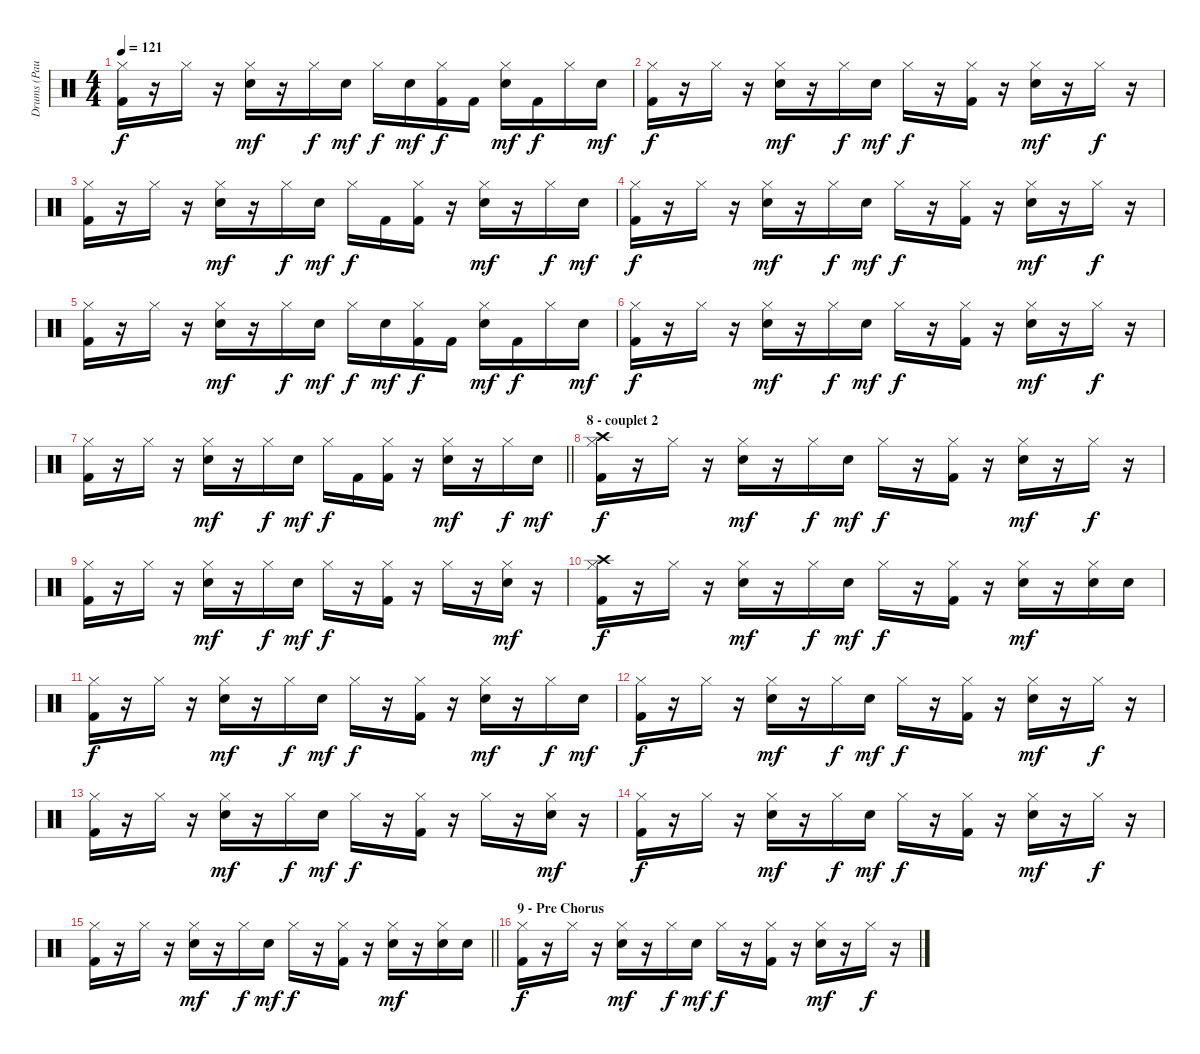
\track ("Drums (Paul)" "Drums (Pau") {instrument percussion}
\staff {score}
\articulation defaults
\ts (4 4)
\tempo 121
\clef neutral
\ks c
("Hi-Hat (closed)" "Kick (hit) 2").16{dy f} r.16 "Hi-Hat (closed)".16 r.16 ("Hi-Hat (closed)" "Snare (hit) 2").16{dy mf} r.16 "Hi-Hat (closed)".16{dy f} "Snare (hit) 2".16{dy mf} "Hi-Hat (closed)".16{dy f} "Snare (hit) 2".16{dy mf} ("Hi-Hat (closed)" "Kick (hit) 2").16{dy f} "Kick (hit) 2".16 ("Hi-Hat (closed)" "Snare (hit) 2").16{dy mf} "Kick (hit) 2".16{dy f} "Hi-Hat (closed)".16 "Snare (hit) 2".16{dy mf} |
("Hi-Hat (closed)" "Kick (hit) 2").16{dy f} r.16 "Hi-Hat (closed)".16 r.16 ("Hi-Hat (closed)" "Snare (hit) 2").16{dy mf} r.16 "Hi-Hat (closed)".16{dy f} "Snare (hit) 2".16{dy mf} "Hi-Hat (closed)".16{dy f} r.16 ("Hi-Hat (closed)" "Kick (hit) 2").16 r.16 ("Hi-Hat (closed)" "Snare (hit) 2").16{dy mf} r.16 "Hi-Hat (closed)".16{dy f} r.16 |
("Hi-Hat (closed)" "Kick (hit) 2").16 r.16 "Hi-Hat (closed)".16 r.16 ("Hi-Hat (closed)" "Snare (hit) 2").16{dy mf} r.16 "Hi-Hat (closed)".16{dy f} "Snare (hit) 2".16{dy mf} "Hi-Hat (closed)".16{dy f} "Kick (hit) 2".16 ("Hi-Hat (closed)" "Kick (hit) 2").16 r.16 ("Hi-Hat (closed)" "Snare (hit) 2").16{dy mf} r.16 "Hi-Hat (closed)".16{dy f} "Snare (hit) 2".16{dy mf} |
("Hi-Hat (closed)" "Kick (hit) 2").16{dy f} r.16 "Hi-Hat (closed)".16 r.16 ("Hi-Hat (closed)" "Snare (hit) 2").16{dy mf} r.16 "Hi-Hat (closed)".16{dy f} "Snare (hit) 2".16{dy mf} "Hi-Hat (closed)".16{dy f} r.16 ("Hi-Hat (closed)" "Kick (hit) 2").16 r.16 ("Hi-Hat (closed)" "Snare (hit) 2").16{dy mf} r.16 "Hi-Hat (closed)".16{dy f} r.16 |
("Hi-Hat (closed)" "Kick (hit) 2").16 r.16 "Hi-Hat (closed)".16 r.16 ("Hi-Hat (closed)" "Snare (hit) 2").16{dy mf} r.16 "Hi-Hat (closed)".16{dy f} "Snare (hit) 2".16{dy mf} "Hi-Hat (closed)".16{dy f} "Snare (hit) 2".16{dy mf} ("Hi-Hat (closed)" "Kick (hit) 2").16{dy f} "Kick (hit) 2".16 ("Hi-Hat (closed)" "Snare (hit) 2").16{dy mf} "Kick (hit) 2".16{dy f} "Hi-Hat (closed)".16 "Snare (hit) 2".16{dy mf} |
("Hi-Hat (closed)" "Kick (hit) 2").16{dy f} r.16 "Hi-Hat (closed)".16 r.16 ("Hi-Hat (closed)" "Snare (hit) 2").16{dy mf} r.16 "Hi-Hat (closed)".16{dy f} "Snare (hit) 2".16{dy mf} "Hi-Hat (closed)".16{dy f} r.16 ("Hi-Hat (closed)" "Kick (hit) 2").16 r.16 ("Hi-Hat (closed)" "Snare (hit) 2").16{dy mf} r.16 "Hi-Hat (closed)".16{dy f} r.16 |
\barLineRight lightlight
("Hi-Hat (closed)" "Kick (hit) 2").16 r.16 "Hi-Hat (closed)".16 r.16 ("Hi-Hat (closed)" "Snare (hit) 2").16{dy mf} r.16 "Hi-Hat (closed)".16{dy f} "Snare (hit) 2".16{dy mf} "Hi-Hat (closed)".16{dy f} "Kick (hit) 2".16 ("Hi-Hat (closed)" "Kick (hit) 2").16 r.16 ("Hi-Hat (closed)" "Snare (hit) 2").16{dy mf} r.16 "Hi-Hat (closed)".16{dy f} "Snare (hit) 2".16{dy mf} |
\section ("" "8 - couplet 2")
("Hi-Hat (closed)" "Crash high (hit)" "Kick (hit) 2").16{dy f} r.16 "Hi-Hat (closed)".16 r.16 ("Hi-Hat (closed)" "Snare (hit) 2").16{dy mf} r.16 "Hi-Hat (closed)".16{dy f} "Snare (hit) 2".16{dy mf} "Hi-Hat (closed)".16{dy f} r.16 ("Hi-Hat (closed)" "Kick (hit) 2").16 r.16 ("Hi-Hat (closed)" "Snare (hit) 2").16{dy mf} r.16 "Hi-Hat (closed)".16{dy f} r.16 |
("Hi-Hat (closed)" "Kick (hit) 2").16 r.16 "Hi-Hat (closed)".16 r.16 ("Hi-Hat (closed)" "Snare (hit) 2").16{dy mf} r.16 "Hi-Hat (closed)".16{dy f} "Snare (hit) 2".16{dy mf} "Hi-Hat (closed)".16{dy f} r.16 ("Hi-Hat (closed)" "Kick (hit) 2").16 r.16 "Hi-Hat (closed)".16 r.16 ("Hi-Hat (closed)" "Snare (hit) 2").16{dy mf} r.16 |
("Hi-Hat (closed)" "Crash high (hit)" "Kick (hit) 2").16{dy f} r.16 "Hi-Hat (closed)".16 r.16 ("Hi-Hat (closed)" "Snare (hit) 2").16{dy mf} r.16 "Hi-Hat (closed)".16{dy f} "Snare (hit) 2".16{dy mf} "Hi-Hat (closed)".16{dy f} r.16 ("Hi-Hat (closed)" "Kick (hit) 2").16 r.16 ("Hi-Hat (closed)" "Snare (hit) 2").16{dy mf} r.16 ("Hi-Hat (closed)" "Snare (hit) 2").16 "Snare (hit) 2".16 |
("Hi-Hat (closed)" "Kick (hit) 2").16{dy f} r.16 "Hi-Hat (closed)".16 r.16 ("Hi-Hat (closed)" "Snare (hit) 2").16{dy mf} r.16 "Hi-Hat (closed)".16{dy f} "Snare (hit) 2".16{dy mf} "Hi-Hat (closed)".16{dy f} r.16 ("Hi-Hat (closed)" "Kick (hit) 2").16 r.16 ("Hi-Hat (closed)" "Snare (hit) 2").16{dy mf} r.16 "Hi-Hat (closed)".16{dy f} "Snare (hit) 2".16{dy mf} |
("Hi-Hat (closed)" "Kick (hit) 2").16{dy f} r.16 "Hi-Hat (closed)".16 r.16 ("Hi-Hat (closed)" "Snare (hit) 2").16{dy mf} r.16 "Hi-Hat (closed)".16{dy f} "Snare (hit) 2".16{dy mf} "Hi-Hat (closed)".16{dy f} r.16 ("Hi-Hat (closed)" "Kick (hit) 2").16 r.16 ("Hi-Hat (closed)" "Snare (hit) 2").16{dy mf} r.16 "Hi-Hat (closed)".16{dy f} r.16 |
("Hi-Hat (closed)" "Kick (hit) 2").16 r.16 "Hi-Hat (closed)".16 r.16 ("Hi-Hat (closed)" "Snare (hit) 2").16{dy mf} r.16 "Hi-Hat (closed)".16{dy f} "Snare (hit) 2".16{dy mf} "Hi-Hat (closed)".16{dy f} r.16 ("Hi-Hat (closed)" "Kick (hit) 2").16 r.16 "Hi-Hat (closed)".16 r.16 ("Hi-Hat (closed)" "Snare (hit) 2").16{dy mf} r.16 |
("Hi-Hat (closed)" "Kick (hit) 2").16{dy f} r.16 "Hi-Hat (closed)".16 r.16 ("Hi-Hat (closed)" "Snare (hit) 2").16{dy mf} r.16 "Hi-Hat (closed)".16{dy f} "Snare (hit) 2".16{dy mf} "Hi-Hat (closed)".16{dy f} r.16 ("Hi-Hat (closed)" "Kick (hit) 2").16 r.16 ("Hi-Hat (closed)" "Snare (hit) 2").16{dy mf} r.16 "Hi-Hat (closed)".16{dy f} r.16 |
\barLineRight lightlight
("Hi-Hat (closed)" "Kick (hit) 2").16 r.16 "Hi-Hat (closed)".16 r.16 ("Hi-Hat (closed)" "Snare (hit) 2").16{dy mf} r.16 "Hi-Hat (closed)".16{dy f} "Snare (hit) 2".16{dy mf} "Hi-Hat (closed)".16{dy f} r.16 ("Hi-Hat (closed)" "Kick (hit) 2").16 r.16 ("Hi-Hat (closed)" "Snare (hit) 2").16{dy mf} r.16 ("Hi-Hat (closed)" "Snare (hit) 2").16 "Snare (hit) 2".16 |
\section ("" "9 - Pre Chorus")
("Hi-Hat (closed)" "Kick (hit) 2").16{dy f} r.16 "Hi-Hat (closed)".16 r.16 ("Hi-Hat (closed)" "Snare (hit) 2").16{dy mf} r.16 "Hi-Hat (closed)".16{dy f} "Snare (hit) 2".16{dy mf} "Hi-Hat (closed)".16{dy f} r.16 ("Hi-Hat (closed)" "Kick (hit) 2").16 r.16 ("Hi-Hat (closed)" "Snare (hit) 2").16{dy mf} r.16 "Hi-Hat (closed)".16{dy f} r.16
